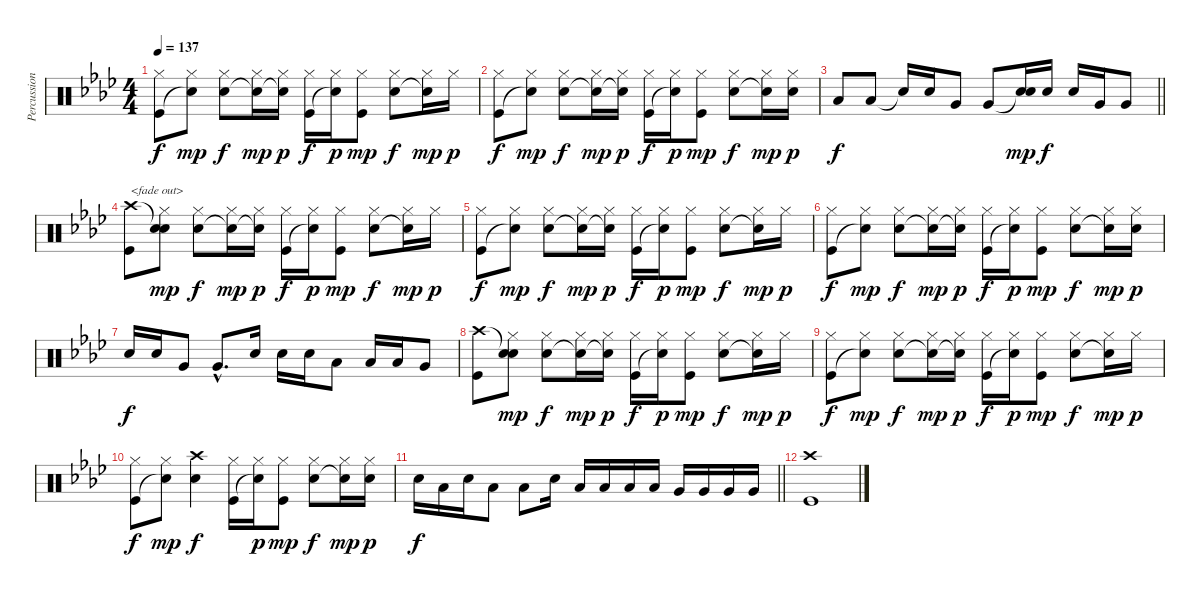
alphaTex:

\track ("Percussion" "Percussion") {instrument percussion}
\staff {score}
\articulation defaults
\ts (4 4)
\tempo 137
\clef neutral
\ks ab
("Hi-Hat (closed)" "Kick (hit)").8{dy f} ("Hi-Hat (closed)" "Snare (hit)"{t}).8{dy mp} ("Hi-Hat (closed)" "Electric Snare (hit)").8{dy f} ("Hi-Hat (closed)" "Electric Snare (hit)"{t}).16{dy mp} ("Hi-Hat (closed)" "Snare (hit)"{t}).16{dy p} ("Hi-Hat (closed)" "Kick (hit)").16{dy f} ("Hi-Hat (closed)" "Snare (hit)"{t}).16{dy p} ("Hi-Hat (closed)" "Kick (hit)").8{dy mp} ("Hi-Hat (closed)" "Electric Snare (hit)").8{dy f} ("Hi-Hat (closed)" "Snare (hit)"{t}).16{dy mp} "Hi-Hat (closed)".16{dy p} |
("Hi-Hat (closed)" "Kick (hit)").8{dy f} ("Hi-Hat (closed)" "Snare (hit)"{t}).8{dy mp} ("Hi-Hat (closed)" "Electric Snare (hit)").8{dy f} ("Hi-Hat (closed)" "Electric Snare (hit)"{t}).16{dy mp} ("Hi-Hat (closed)" "Snare (hit)"{t}).16{dy p} ("Hi-Hat (closed)" "Kick (hit)").16{dy f} ("Hi-Hat (closed)" "Snare (hit)"{t}).16{dy p} ("Hi-Hat (closed)" "Kick (hit)").8{dy mp} ("Hi-Hat (closed)" "Electric Snare (hit)").8{dy f} ("Hi-Hat (closed)" "Snare (hit)"{t}).16{dy mp} ("Hi-Hat (closed)" "Electric Snare (hit)").16{dy p} |
\barLineRight lightlight "Low Tom (hit)".8{dy f} "Low Tom (hit)".8 "Snare (hit)"{t}.16 "Electric Snare (hit)".16 "Very Low Tom (hit)".8 "Very Low Tom (hit)".8
("Snare (hit)"{t} "Electric Snare (hit)").16{dy mp} "Electric Snare (hit)".16{dy f} "Electric Snare (hit)".16 "Very Low Tom (hit)".16 "Very Low Tom (hit)".8 |
("Crash high (hit)" "Kick (hit)").8{txt "<fade out>"} ("Snare (hit)"{t} "Hi-Hat (closed)" "Snare (hit)").8{dy mp} ("Hi-Hat (closed)" "Electric Snare (hit)").8{dy f} ("Hi-Hat (closed)" "Electric Snare (hit)"{t}).16{dy mp} ("Hi-Hat (closed)" "Snare (hit)"{t}).16{dy p} ("Hi-Hat (closed)" "Kick (hit)").16{dy f volume 14} ("Hi-Hat (closed)" "Snare (hit)"{t}).16{dy p} ("Hi-Hat (closed)" "Kick (hit)").8{dy mp} ("Hi-Hat (closed)" "Electric Snare (hit)").8{dy f} ("Hi-Hat (closed)" "Snare (hit)"{t}).16{dy mp} "Hi-Hat (closed)".16{dy p} |
("Hi-Hat (closed)" "Kick (hit)").8{dy f volume 13} ("Hi-Hat (closed)" "Snare (hit)"{t}).8{dy mp} ("Hi-Hat (closed)" "Electric Snare (hit)").8{dy f} ("Hi-Hat (closed)" "Electric Snare (hit)"{t}).16{dy mp} ("Hi-Hat (closed)" "Snare (hit)"{t}).16{dy p} ("Hi-Hat (closed)" "Kick (hit)").16{dy f volume 12} ("Hi-Hat (closed)" "Snare (hit)"{t}).16{dy p} ("Hi-Hat (closed)" "Kick (hit)").8{dy mp} ("Hi-Hat (closed)" "Electric Snare (hit)").8{dy f} ("Hi-Hat (closed)" "Snare (hit)"{t}).16{dy mp} "Hi-Hat (closed)".16{dy p} |
("Hi-Hat (closed)" "Kick (hit)").8{dy f volume 11} ("Hi-Hat (closed)" "Snare (hit)"{t}).8{dy mp} ("Hi-Hat (closed)" "Electric Snare (hit)").8{dy f} ("Hi-Hat (closed)" "Electric Snare (hit)"{t}).16{dy mp} ("Hi-Hat (closed)" "Snare (hit)"{t}).16{dy p} ("Hi-Hat (closed)" "Kick (hit)").16{dy f volume 10} ("Hi-Hat (closed)" "Snare (hit)"{t}).16{dy p} ("Hi-Hat (closed)" "Kick (hit)").8{dy mp} ("Hi-Hat (closed)" "Electric Snare (hit)").8{dy f} ("Hi-Hat (closed)" "Snare (hit)"{t}).16{dy mp} ("Hi-Hat (closed)" "Electric Snare (hit)").16{dy p} |
"Electric Snare (hit)".16{dy f volume 9} "Electric Snare (hit)".16 "Very Low Tom (hit)".8 "Very Low Tom (hit)"{hac}.8{d} "Electric Snare (hit)".16 "Electric Snare (hit)".16{volume 8} "Electric Snare (hit)".16 "Low Tom (hit)".8 "Low Tom (hit)".16 "Low Tom (hit)".16 "Very Low Tom (hit)".8 |
("Crash high (hit)" "Kick (hit)").8{volume 7} ("Snare (hit)"{t} "Hi-Hat (closed)" "Snare (hit)").8{dy mp} ("Hi-Hat (closed)" "Electric Snare (hit)").8{dy f} ("Hi-Hat (closed)" "Electric Snare (hit)"{t}).16{dy mp} ("Hi-Hat (closed)" "Snare (hit)"{t}).16{dy p} ("Hi-Hat (closed)" "Kick (hit)").16{dy f volume 6} ("Hi-Hat (closed)" "Snare (hit)"{t}).16{dy p} ("Hi-Hat (closed)" "Kick (hit)").8{dy mp} ("Hi-Hat (closed)" "Electric Snare (hit)").8{dy f} ("Hi-Hat (closed)" "Snare (hit)"{t}).16{dy mp} "Hi-Hat (closed)".16{dy p} |
("Hi-Hat (closed)" "Kick (hit)").8{dy f volume 5} ("Hi-Hat (closed)" "Snare (hit)"{t}).8{dy mp} ("Hi-Hat (closed)" "Electric Snare (hit)").8{dy f} ("Hi-Hat (closed)" "Electric Snare (hit)"{t}).16{dy mp} ("Hi-Hat (closed)" "Snare (hit)"{t}).16{dy p} ("Hi-Hat (closed)" "Kick (hit)").16{dy f volume 4} ("Hi-Hat (closed)" "Snare (hit)"{t}).16{dy p} ("Hi-Hat (closed)" "Kick (hit)").8{dy mp} ("Hi-Hat (closed)" "Electric Snare (hit)").8{dy f} ("Hi-Hat (closed)" "Snare (hit)"{t}).16{dy mp} "Hi-Hat (closed)".16{dy p} |
("Hi-Hat (closed)" "Kick (hit)").8{dy f volume 3} ("Hi-Hat (closed)" "Snare (hit)"{t}).8{dy mp} ("Crash high (hit)" "Electric Snare (hit)").4{dy f} ("Hi-Hat (closed)" "Kick (hit)").16{volume 2} ("Hi-Hat (closed)" "Snare (hit)"{t}).16{dy p} ("Hi-Hat (closed)" "Kick (hit)").8{dy mp} ("Hi-Hat (closed)" "Electric Snare (hit)").8{dy f} ("Hi-Hat (closed)" "Snare (hit)"{t}).16{dy mp} ("Hi-Hat (closed)" "Electric Snare (hit)").16{dy p} |
\barLineRight lightlight "Electric Snare (hit)".16{dy f volume 1} "Low Tom (hit)".16 "Electric Snare (hit)".16 "Low Tom (hit)".8 "Low Tom (hit)".8 "Electric Snare (hit)".16 "Low Tom (hit)".16{volume 0} "Low Tom (hit)".16 "Low Tom (hit)".16 "Low Tom (hit)".16 "Very Low Tom (hit)".16 "Very Low Tom (hit)".16 "Very Low Tom (hit)".16 "Very Low Tom (hit)".16
|
("Crash high (hit)" "Kick (hit)").1
